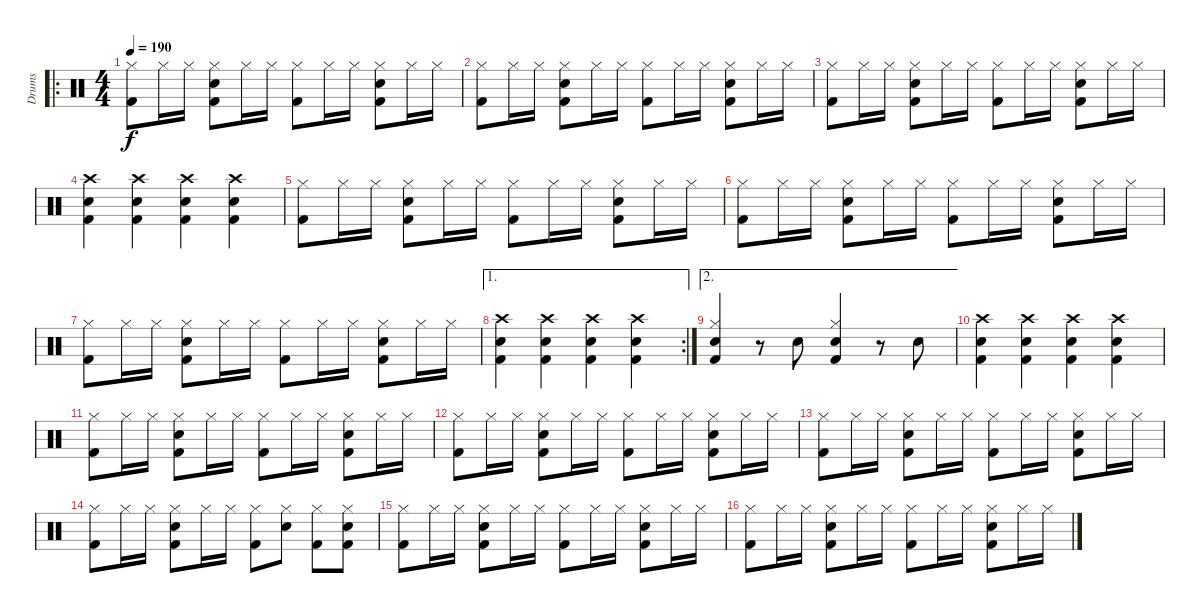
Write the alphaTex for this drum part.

\track ("Drums" "Drums") {instrument percussion}
\staff {score}
\articulation defaults
\ro
\ts (4 4)
\tempo 190
\clef neutral
\ks c
("Kick (hit) 2" "Hi-Hat (closed)").8{dy f} "Hi-Hat (closed)".16 "Hi-Hat (closed)".16 ("Kick (hit) 2" "Snare (hit) 2" "Hi-Hat (closed)").8 "Hi-Hat (closed)".16 "Hi-Hat (closed)".16 ("Kick (hit) 2" "Hi-Hat (closed)").8 "Hi-Hat (closed)".16 "Hi-Hat (closed)".16 ("Kick (hit) 2" "Snare (hit) 2" "Hi-Hat (closed)").8 "Hi-Hat (closed)".16 "Hi-Hat (closed)".16 |
("Kick (hit) 2" "Hi-Hat (closed)").8 "Hi-Hat (closed)".16 "Hi-Hat (closed)".16 ("Kick (hit) 2" "Snare (hit) 2" "Hi-Hat (closed)").8 "Hi-Hat (closed)".16 "Hi-Hat (closed)".16 ("Kick (hit) 2" "Hi-Hat (closed)").8 "Hi-Hat (closed)".16 "Hi-Hat (closed)".16 ("Kick (hit) 2" "Snare (hit) 2" "Hi-Hat (closed)").8 "Hi-Hat (closed)".16 "Hi-Hat (closed)".16 |
("Kick (hit) 2" "Hi-Hat (closed)").8 "Hi-Hat (closed)".16 "Hi-Hat (closed)".16 ("Kick (hit) 2" "Snare (hit) 2" "Hi-Hat (closed)").8 "Hi-Hat (closed)".16 "Hi-Hat (closed)".16 ("Kick (hit) 2" "Hi-Hat (closed)").8 "Hi-Hat (closed)".16 "Hi-Hat (closed)".16 ("Kick (hit) 2" "Snare (hit) 2" "Hi-Hat (closed)").8 "Hi-Hat (closed)".16 "Hi-Hat (closed)".16 |
("Kick (hit) 2" "Snare (hit) 2" "Crash high (hit)").4 ("Kick (hit) 2" "Snare (hit) 2" "Crash high (hit)").4 ("Kick (hit) 2" "Snare (hit) 2" "Crash high (hit)").4 ("Kick (hit) 2" "Snare (hit) 2" "Crash high (hit)").4 |
("Kick (hit) 2" "Hi-Hat (closed)").8 "Hi-Hat (closed)".16 "Hi-Hat (closed)".16 ("Kick (hit) 2" "Snare (hit) 2" "Hi-Hat (closed)").8 "Hi-Hat (closed)".16 "Hi-Hat (closed)".16 ("Kick (hit) 2" "Hi-Hat (closed)").8 "Hi-Hat (closed)".16 "Hi-Hat (closed)".16 ("Kick (hit) 2" "Snare (hit) 2" "Hi-Hat (closed)").8 "Hi-Hat (closed)".16 "Hi-Hat (closed)".16 |
("Kick (hit) 2" "Hi-Hat (closed)").8 "Hi-Hat (closed)".16 "Hi-Hat (closed)".16 ("Kick (hit) 2" "Snare (hit) 2" "Hi-Hat (closed)").8 "Hi-Hat (closed)".16 "Hi-Hat (closed)".16 ("Kick (hit) 2" "Hi-Hat (closed)").8 "Hi-Hat (closed)".16 "Hi-Hat (closed)".16 ("Kick (hit) 2" "Snare (hit) 2" "Hi-Hat (closed)").8 "Hi-Hat (closed)".16 "Hi-Hat (closed)".16 |
("Kick (hit) 2" "Hi-Hat (closed)").8 "Hi-Hat (closed)".16 "Hi-Hat (closed)".16 ("Kick (hit) 2" "Snare (hit) 2" "Hi-Hat (closed)").8 "Hi-Hat (closed)".16 "Hi-Hat (closed)".16 ("Kick (hit) 2" "Hi-Hat (closed)").8 "Hi-Hat (closed)".16 "Hi-Hat (closed)".16 ("Kick (hit) 2" "Snare (hit) 2" "Hi-Hat (closed)").8 "Hi-Hat (closed)".16 "Hi-Hat (closed)".16 |
\ae 1
\rc 2
("Kick (hit) 2" "Snare (hit) 2" "Crash high (hit)").4 ("Kick (hit) 2" "Snare (hit) 2" "Crash high (hit)").4 ("Kick (hit) 2" "Snare (hit) 2" "Crash high (hit)").4 ("Kick (hit) 2" "Snare (hit) 2" "Crash high (hit)").4 |
\ae 2
("Snare (hit) 2" "Kick (hit) 2" "Hi-Hat (closed)").4 r.8 "Snare (hit) 2".8 ("Snare (hit) 2" "Kick (hit) 2" "Hi-Hat (closed)").4 r.8 "Snare (hit) 2".8 |
("Snare (hit) 2" "Kick (hit) 2" "Crash high (hit)").4 ("Snare (hit) 2" "Kick (hit) 2" "Crash high (hit)").4 ("Snare (hit) 2" "Kick (hit) 2" "Crash high (hit)").4 ("Snare (hit) 2" "Kick (hit) 2" "Crash high (hit)").4 |
("Kick (hit) 2" "Hi-Hat (closed)").8 "Hi-Hat (closed)".16 "Hi-Hat (closed)".16 ("Kick (hit) 2" "Snare (hit) 2" "Hi-Hat (closed)").8 "Hi-Hat (closed)".16 "Hi-Hat (closed)".16 ("Kick (hit) 2" "Hi-Hat (closed)").8 "Hi-Hat (closed)".16 "Hi-Hat (closed)".16 ("Kick (hit) 2" "Snare (hit) 2" "Hi-Hat (closed)").8 "Hi-Hat (closed)".16 "Hi-Hat (closed)".16 |
("Kick (hit) 2" "Hi-Hat (closed)").8 "Hi-Hat (closed)".16 "Hi-Hat (closed)".16 ("Kick (hit) 2" "Snare (hit) 2" "Hi-Hat (closed)").8 "Hi-Hat (closed)".16 "Hi-Hat (closed)".16 ("Kick (hit) 2" "Hi-Hat (closed)").8 "Hi-Hat (closed)".16 "Hi-Hat (closed)".16 ("Kick (hit) 2" "Snare (hit) 2" "Hi-Hat (closed)").8 "Hi-Hat (closed)".16 "Hi-Hat (closed)".16 |
("Kick (hit) 2" "Hi-Hat (closed)").8 "Hi-Hat (closed)".16 "Hi-Hat (closed)".16 ("Kick (hit) 2" "Snare (hit) 2" "Hi-Hat (closed)").8 "Hi-Hat (closed)".16 "Hi-Hat (closed)".16 ("Kick (hit) 2" "Hi-Hat (closed)").8 "Hi-Hat (closed)".16 "Hi-Hat (closed)".16 ("Kick (hit) 2" "Snare (hit) 2" "Hi-Hat (closed)").8 "Hi-Hat (closed)".16 "Hi-Hat (closed)".16 |
("Kick (hit) 2" "Hi-Hat (closed)").8 "Hi-Hat (closed)".16 "Hi-Hat (closed)".16 ("Kick (hit) 2" "Snare (hit) 2" "Hi-Hat (closed)").8 "Hi-Hat (closed)".16 "Hi-Hat (closed)".16 ("Kick (hit) 2" "Hi-Hat (closed)").8 ("Hi-Hat (closed)" "Snare (hit) 2").8 ("Kick (hit) 2" "Hi-Hat (closed)").8 ("Hi-Hat (closed)" "Kick (hit) 2" "Snare (hit) 2").8 |
("Kick (hit) 2" "Hi-Hat (closed)").8 "Hi-Hat (closed)".16 "Hi-Hat (closed)".16 ("Kick (hit) 2" "Snare (hit) 2" "Hi-Hat (closed)").8 "Hi-Hat (closed)".16 "Hi-Hat (closed)".16 ("Kick (hit) 2" "Hi-Hat (closed)").8 "Hi-Hat (closed)".16 "Hi-Hat (closed)".16 ("Kick (hit) 2" "Snare (hit) 2" "Hi-Hat (closed)").8 "Hi-Hat (closed)".16 "Hi-Hat (closed)".16 |
("Kick (hit) 2" "Hi-Hat (closed)").8 "Hi-Hat (closed)".16 "Hi-Hat (closed)".16 ("Kick (hit) 2" "Snare (hit) 2" "Hi-Hat (closed)").8 "Hi-Hat (closed)".16 "Hi-Hat (closed)".16 ("Kick (hit) 2" "Hi-Hat (closed)").8 "Hi-Hat (closed)".16 "Hi-Hat (closed)".16 ("Kick (hit) 2" "Snare (hit) 2" "Hi-Hat (closed)").8 "Hi-Hat (closed)".16 "Hi-Hat (closed)".16
